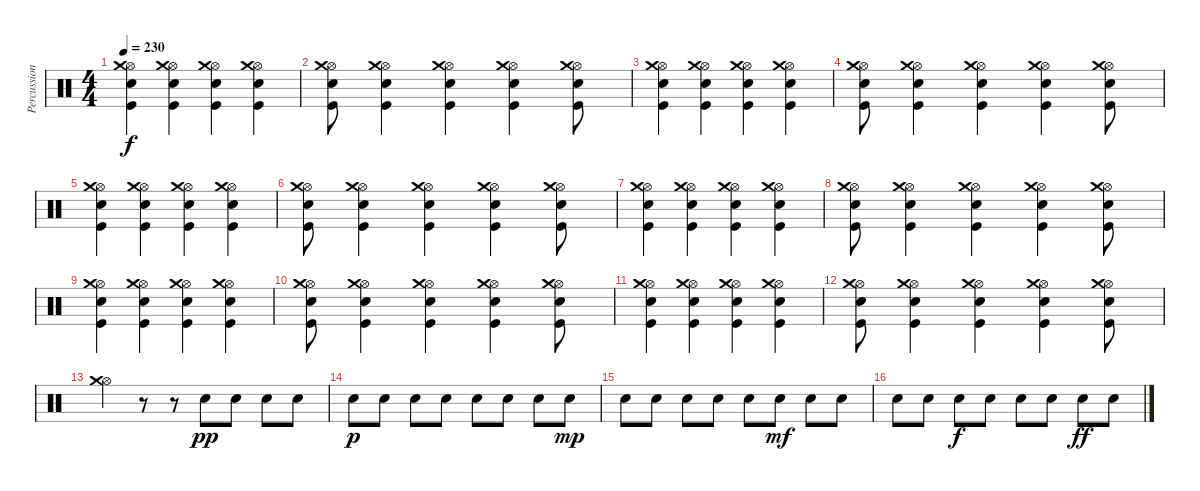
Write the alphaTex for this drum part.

\track ("Percussion" "Percussion") {instrument percussion}
\staff {score}
\articulation defaults
\ts (4 4)
\tempo 230
\clef neutral
\ks c
("Hi-Hat (open)" "Crash medium (hit)" "Kick (hit)" "Electric Snare (hit)").4{dy f} ("Hi-Hat (open)" "Crash medium (hit)" "Kick (hit)" "Electric Snare (hit)").4 ("Hi-Hat (open)" "Crash medium (hit)" "Kick (hit)" "Electric Snare (hit)").4 ("Hi-Hat (open)" "Crash medium (hit)" "Kick (hit)" "Electric Snare (hit)").4 |
("Hi-Hat (open)" "Crash medium (hit)" "Kick (hit)" "Electric Snare (hit)").8 ("Hi-Hat (open)" "Crash medium (hit)" "Kick (hit)" "Electric Snare (hit)").4 ("Hi-Hat (open)" "Crash medium (hit)" "Kick (hit)" "Electric Snare (hit)").4 ("Hi-Hat (open)" "Crash medium (hit)" "Kick (hit)" "Electric Snare (hit)").4 ("Hi-Hat (open)" "Crash medium (hit)" "Kick (hit)" "Electric Snare (hit)").8 |
("Hi-Hat (open)" "Crash medium (hit)" "Kick (hit)" "Electric Snare (hit)").4 ("Hi-Hat (open)" "Crash medium (hit)" "Kick (hit)" "Electric Snare (hit)").4 ("Hi-Hat (open)" "Crash medium (hit)" "Kick (hit)" "Electric Snare (hit)").4 ("Hi-Hat (open)" "Crash medium (hit)" "Kick (hit)" "Electric Snare (hit)").4 |
("Hi-Hat (open)" "Crash medium (hit)" "Kick (hit)" "Electric Snare (hit)").8 ("Hi-Hat (open)" "Crash medium (hit)" "Kick (hit)" "Electric Snare (hit)").4 ("Hi-Hat (open)" "Crash medium (hit)" "Kick (hit)" "Electric Snare (hit)").4 ("Hi-Hat (open)" "Crash medium (hit)" "Kick (hit)" "Electric Snare (hit)").4 ("Hi-Hat (open)" "Crash medium (hit)" "Kick (hit)" "Electric Snare (hit)").8 |
("Hi-Hat (open)" "Crash medium (hit)" "Kick (hit)" "Electric Snare (hit)").4 ("Hi-Hat (open)" "Crash medium (hit)" "Kick (hit)" "Electric Snare (hit)").4 ("Hi-Hat (open)" "Crash medium (hit)" "Kick (hit)" "Electric Snare (hit)").4 ("Hi-Hat (open)" "Crash medium (hit)" "Kick (hit)" "Electric Snare (hit)").4 |
("Hi-Hat (open)" "Crash medium (hit)" "Kick (hit)" "Electric Snare (hit)").8 ("Hi-Hat (open)" "Crash medium (hit)" "Kick (hit)" "Electric Snare (hit)").4 ("Hi-Hat (open)" "Crash medium (hit)" "Kick (hit)" "Electric Snare (hit)").4 ("Hi-Hat (open)" "Crash medium (hit)" "Kick (hit)" "Electric Snare (hit)").4 ("Hi-Hat (open)" "Crash medium (hit)" "Kick (hit)" "Electric Snare (hit)").8 |
("Hi-Hat (open)" "Crash medium (hit)" "Kick (hit)" "Electric Snare (hit)").4 ("Hi-Hat (open)" "Crash medium (hit)" "Kick (hit)" "Electric Snare (hit)").4 ("Hi-Hat (open)" "Crash medium (hit)" "Kick (hit)" "Electric Snare (hit)").4 ("Hi-Hat (open)" "Crash medium (hit)" "Kick (hit)" "Electric Snare (hit)").4 |
("Hi-Hat (open)" "Crash medium (hit)" "Kick (hit)" "Electric Snare (hit)").8 ("Hi-Hat (open)" "Crash medium (hit)" "Kick (hit)" "Electric Snare (hit)").4 ("Hi-Hat (open)" "Crash medium (hit)" "Kick (hit)" "Electric Snare (hit)").4 ("Hi-Hat (open)" "Crash medium (hit)" "Kick (hit)" "Electric Snare (hit)").4 ("Hi-Hat (open)" "Crash medium (hit)" "Kick (hit)" "Electric Snare (hit)").8 |
("Hi-Hat (open)" "Crash medium (hit)" "Kick (hit)" "Electric Snare (hit)").4 ("Hi-Hat (open)" "Crash medium (hit)" "Kick (hit)" "Electric Snare (hit)").4 ("Hi-Hat (open)" "Crash medium (hit)" "Kick (hit)" "Electric Snare (hit)").4 ("Hi-Hat (open)" "Crash medium (hit)" "Kick (hit)" "Electric Snare (hit)").4 |
("Hi-Hat (open)" "Crash medium (hit)" "Kick (hit)" "Electric Snare (hit)").8 ("Hi-Hat (open)" "Crash medium (hit)" "Kick (hit)" "Electric Snare (hit)").4 ("Hi-Hat (open)" "Crash medium (hit)" "Kick (hit)" "Electric Snare (hit)").4 ("Hi-Hat (open)" "Crash medium (hit)" "Kick (hit)" "Electric Snare (hit)").4 ("Hi-Hat (open)" "Crash medium (hit)" "Kick (hit)" "Electric Snare (hit)").8 |
("Hi-Hat (open)" "Crash medium (hit)" "Kick (hit)" "Electric Snare (hit)").4 ("Hi-Hat (open)" "Crash medium (hit)" "Kick (hit)" "Electric Snare (hit)").4 ("Hi-Hat (open)" "Crash medium (hit)" "Kick (hit)" "Electric Snare (hit)").4 ("Hi-Hat (open)" "Crash medium (hit)" "Kick (hit)" "Electric Snare (hit)").4 |
("Hi-Hat (open)" "Crash medium (hit)" "Kick (hit)" "Electric Snare (hit)").8 ("Hi-Hat (open)" "Crash medium (hit)" "Kick (hit)" "Electric Snare (hit)").4 ("Hi-Hat (open)" "Crash medium (hit)" "Kick (hit)" "Electric Snare (hit)").4 ("Hi-Hat (open)" "Crash medium (hit)" "Kick (hit)" "Electric Snare (hit)").4 ("Hi-Hat (open)" "Crash medium (hit)" "Kick (hit)" "Electric Snare (hit)").8 |
("Hi-Hat (open)" "Crash medium (hit)").4 r.8 r.8 "Electric Snare (hit)".8{dy pp} "Electric Snare (hit)".8 "Electric Snare (hit)".8 "Electric Snare (hit)".8 |
"Electric Snare (hit)".8{dy p} "Electric Snare (hit)".8 "Electric Snare (hit)".8 "Electric Snare (hit)".8 "Electric Snare (hit)".8 "Electric Snare (hit)".8 "Electric Snare (hit)".8 "Electric Snare (hit)".8{dy mp} |
"Electric Snare (hit)".8 "Electric Snare (hit)".8 "Electric Snare (hit)".8 "Electric Snare (hit)".8 "Electric Snare (hit)".8 "Electric Snare (hit)".8{dy mf} "Electric Snare (hit)".8 "Electric Snare (hit)".8 |
"Electric Snare (hit)".8 "Electric Snare (hit)".8 "Electric Snare (hit)".8{dy f} "Electric Snare (hit)".8 "Electric Snare (hit)".8 "Electric Snare (hit)".8 "Electric Snare (hit)".8{dy ff} "Electric Snare (hit)".8
